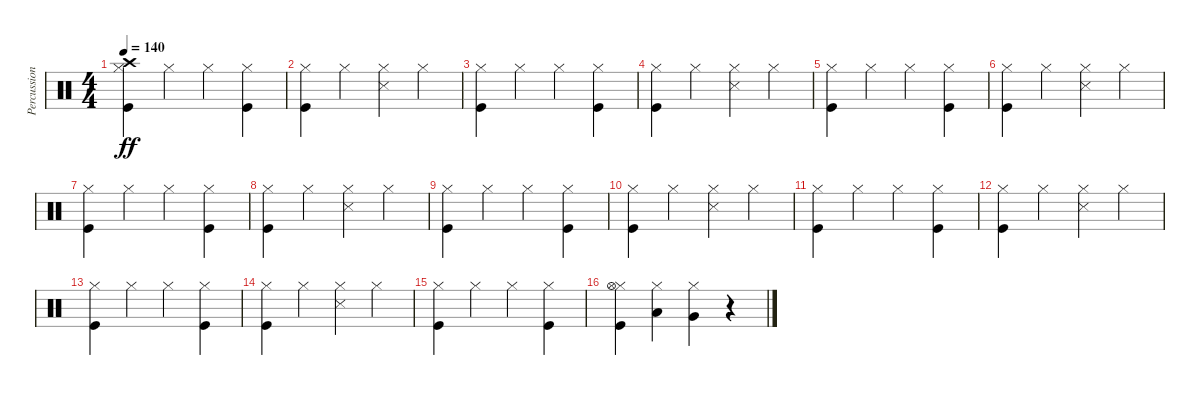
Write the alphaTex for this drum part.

\track ("Percussions" "Percussion") {instrument percussion}
\staff {score}
\articulation defaults
\ts (4 4)
\tempo 140
\clef neutral
\ks c
("Kick (hit)" "Hi-Hat (closed)" "Crash high (hit)").4{dy ff volume 12} "Hi-Hat (closed)".4{volume 12} "Hi-Hat (closed)".4{volume 13} ("Kick (hit)" "Hi-Hat (closed)").4{volume 13} |
("Kick (hit)" "Hi-Hat (closed)").4{volume 14} "Hi-Hat (closed)".4{volume 14} ("Snare (side stick) 3" "Hi-Hat (closed)").4{volume 15} "Hi-Hat (closed)".4{volume 15} |
("Kick (hit)" "Hi-Hat (closed)").4{volume 16} "Hi-Hat (closed)".4 "Hi-Hat (closed)".4 ("Kick (hit)" "Hi-Hat (closed)").4 |
("Kick (hit)" "Hi-Hat (closed)").4 "Hi-Hat (closed)".4 ("Snare (side stick) 3" "Hi-Hat (closed)").4 "Hi-Hat (closed)".4 |
("Kick (hit)" "Hi-Hat (closed)").4 "Hi-Hat (closed)".4 "Hi-Hat (closed)".4 ("Kick (hit)" "Hi-Hat (closed)").4 |
("Kick (hit)" "Hi-Hat (closed)").4 "Hi-Hat (closed)".4 ("Snare (side stick) 3" "Hi-Hat (closed)").4 "Hi-Hat (closed)".4 |
("Kick (hit)" "Hi-Hat (closed)").4 "Hi-Hat (closed)".4 "Hi-Hat (closed)".4 ("Kick (hit)" "Hi-Hat (closed)").4 |
("Kick (hit)" "Hi-Hat (closed)").4 "Hi-Hat (closed)".4 ("Snare (side stick) 3" "Hi-Hat (closed)").4 "Hi-Hat (closed)".4 |
("Kick (hit)" "Hi-Hat (closed)").4 "Hi-Hat (closed)".4 "Hi-Hat (closed)".4 ("Kick (hit)" "Hi-Hat (closed)").4 |
("Kick (hit)" "Hi-Hat (closed)").4 "Hi-Hat (closed)".4 ("Snare (side stick) 3" "Hi-Hat (closed)").4 "Hi-Hat (closed)".4 |
("Kick (hit)" "Hi-Hat (closed)").4 "Hi-Hat (closed)".4 "Hi-Hat (closed)".4 ("Kick (hit)" "Hi-Hat (closed)").4 |
("Kick (hit)" "Hi-Hat (closed)").4 "Hi-Hat (closed)".4 ("Snare (side stick) 3" "Hi-Hat (closed)").4 "Hi-Hat (closed)".4 |
("Kick (hit)" "Hi-Hat (closed)").4 "Hi-Hat (closed)".4 "Hi-Hat (closed)".4 ("Kick (hit)" "Hi-Hat (closed)").4 |
("Kick (hit)" "Hi-Hat (closed)").4 "Hi-Hat (closed)".4 ("Snare (side stick) 3" "Hi-Hat (closed)").4 "Hi-Hat (closed)".4 |
("Kick (hit)" "Hi-Hat (closed)").4 "Hi-Hat (closed)".4 "Hi-Hat (closed)".4 ("Kick (hit)" "Hi-Hat (closed)").4 |
("Kick (hit)" "Hi-Hat (closed)" "Hi-Hat (open)").4 ("Hi-Hat (closed)" "Low Tom (hit)").4 ("Hi-Hat (closed)" "Very Low Tom (hit)").4 r.4
